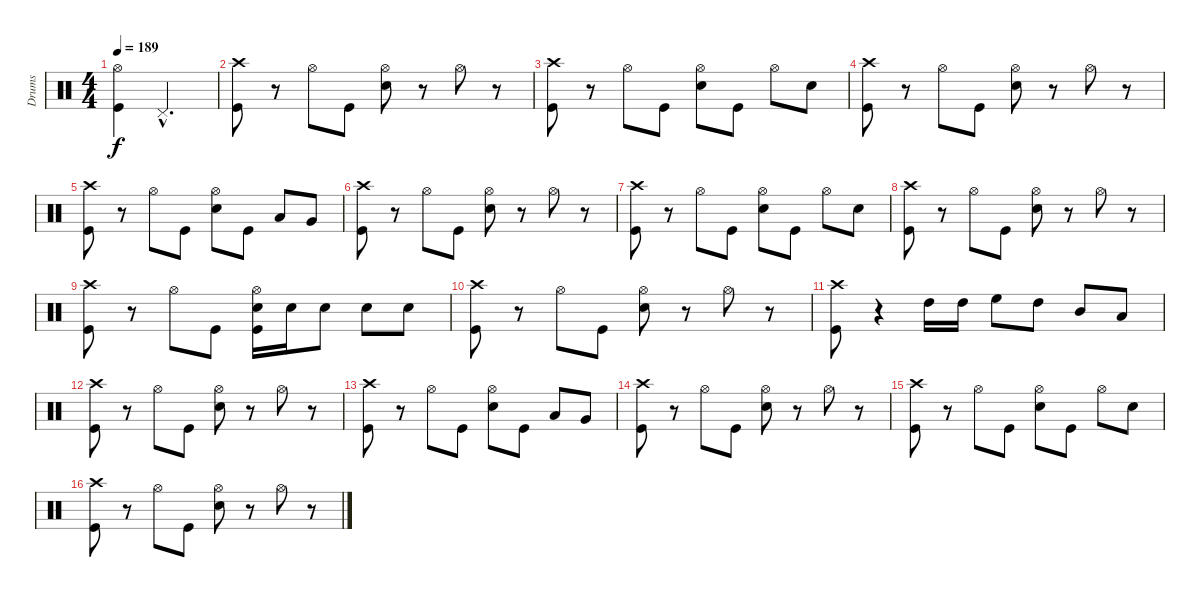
\track ("Drums" "Drums") {instrument percussion}
\staff {score}
\articulation defaults
\ts (4 4)
\tempo 189
\clef neutral
\ks c
("Hi-Hat (open)" "Kick (hit)").4{dy f} "Pedal Hi-Hat (hit)"{hac}.2{d} |
("Crash high (hit)" "Kick (hit)").8 r.8 "Hi-Hat (open)".8 "Kick (hit)".8 ("Hi-Hat (open)" "Electric Snare (hit)").8 r.8 "Hi-Hat (open)".8 r.8 |
("Crash high (hit)" "Kick (hit)").8 r.8 "Hi-Hat (open)".8 "Kick (hit)".8 ("Hi-Hat (open)" "Electric Snare (hit)").8 "Kick (hit)".8 "Hi-Hat (open)".8 "Electric Snare (hit)".8 |
("Crash high (hit)" "Kick (hit)").8 r.8 "Hi-Hat (open)".8 "Kick (hit)".8 ("Hi-Hat (open)" "Electric Snare (hit)").8 r.8 "Hi-Hat (open)".8 r.8 |
("Crash high (hit)" "Kick (hit)").8 r.8 "Hi-Hat (open)".8 "Kick (hit)".8 ("Hi-Hat (open)" "Electric Snare (hit)").8 "Kick (hit)".8 "Low Tom (hit)".8 "Very Low Tom (hit)".8 |
("Crash high (hit)" "Kick (hit)").8 r.8 "Hi-Hat (open)".8 "Kick (hit)".8 ("Hi-Hat (open)" "Electric Snare (hit)").8 r.8 "Hi-Hat (open)".8 r.8 |
("Crash high (hit)" "Kick (hit)").8 r.8 "Hi-Hat (open)".8 "Kick (hit)".8 ("Hi-Hat (open)" "Electric Snare (hit)").8 "Kick (hit)".8 "Hi-Hat (open)".8 "Electric Snare (hit)".8 |
("Crash high (hit)" "Kick (hit)").8 r.8 "Hi-Hat (open)".8 "Kick (hit)".8 ("Hi-Hat (open)" "Electric Snare (hit)").8 r.8 "Hi-Hat (open)".8 r.8 |
("Crash high (hit)" "Kick (hit)").8 r.8 "Hi-Hat (open)".8 "Kick (hit)".8 ("Hi-Hat (open)" "Electric Snare (hit)" "Kick (hit)").16 "Electric Snare (hit)".16 "Electric Snare (hit)".8 "Electric Snare (hit)".8 "Electric Snare (hit)".8 |
("Crash high (hit)" "Kick (hit)").8 r.8 "Hi-Hat (open)".8 "Kick (hit)".8 ("Hi-Hat (open)" "Electric Snare (hit)").8 r.8 "Hi-Hat (open)".8 r.8 |
("Crash high (hit)" "Kick (hit)").8 r.4 "High Tom (hit)".16 "High Tom (hit)".16 "High Floor Tom (hit)".8 "High Tom (hit)".8 "Mid Tom (hit)".8 "Low Tom (hit)".8 |
("Crash high (hit)" "Kick (hit)").8 r.8 "Hi-Hat (open)".8 "Kick (hit)".8 ("Hi-Hat (open)" "Electric Snare (hit)").8 r.8 "Hi-Hat (open)".8 r.8 |
("Crash high (hit)" "Kick (hit)").8 r.8 "Hi-Hat (open)".8 "Kick (hit)".8 ("Hi-Hat (open)" "Electric Snare (hit)").8 "Kick (hit)".8 "Low Tom (hit)".8 "Very Low Tom (hit)".8 |
("Crash high (hit)" "Kick (hit)").8 r.8 "Hi-Hat (open)".8 "Kick (hit)".8 ("Hi-Hat (open)" "Electric Snare (hit)").8 r.8 "Hi-Hat (open)".8 r.8 |
("Crash high (hit)" "Kick (hit)").8 r.8 "Hi-Hat (open)".8 "Kick (hit)".8 ("Hi-Hat (open)" "Electric Snare (hit)").8 "Kick (hit)".8 "Hi-Hat (open)".8 "Electric Snare (hit)".8 |
("Crash high (hit)" "Kick (hit)").8 r.8 "Hi-Hat (open)".8 "Kick (hit)".8 ("Hi-Hat (open)" "Electric Snare (hit)").8 r.8 "Hi-Hat (open)".8 r.8
